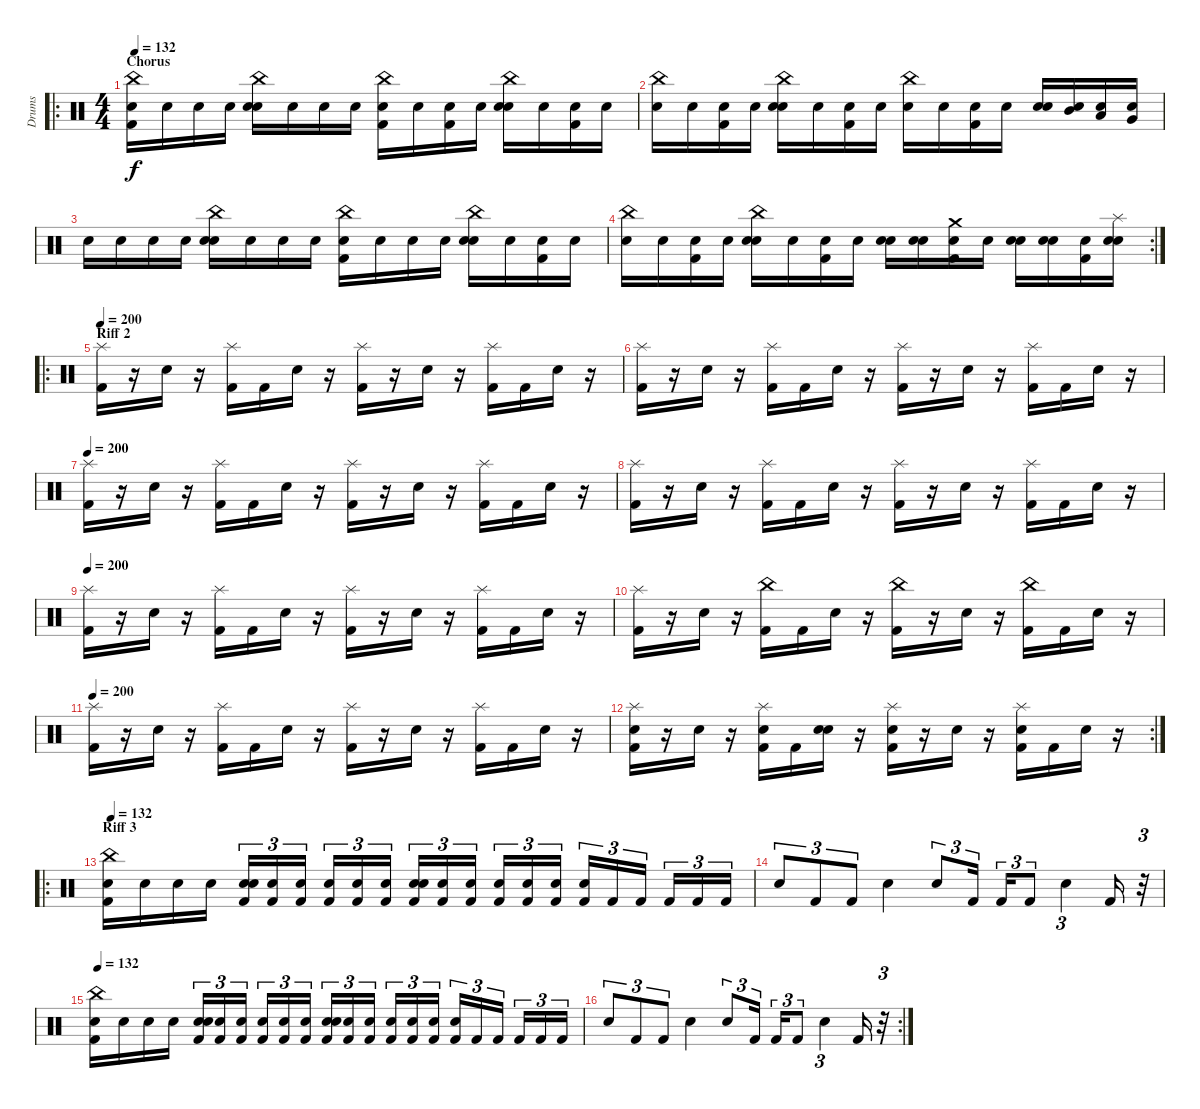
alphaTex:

\track ("Drums" "Drums") {instrument percussion}
\staff {score}
\articulation defaults
\ro
\ts (4 4)
\section ("" "Chorus")
\tempo 132
\clef neutral
\ks c
("Snare (hit)" "Kick (hit) 2" "China (hit)").16{dy f} "Snare (hit)".16 "Snare (hit)".16 "Snare (hit)".16 ("Snare (hit)" "Snare (hit) 2" "China (hit)").16 "Snare (hit)".16 "Snare (hit)".16 "Snare (hit)".16 ("Snare (hit)" "Kick (hit) 2" "China (hit)").16 "Snare (hit)".16 ("Snare (hit)" "Kick (hit) 2").16 "Snare (hit)".16 ("Snare (hit)" "Snare (hit) 2" "China (hit)").16 "Snare (hit)".16 ("Snare (hit)" "Kick (hit) 2").16 "Snare (hit)".16 |
("Snare (hit)" "China (hit)").16 "Snare (hit)".16 ("Snare (hit)" "Kick (hit) 2").16 "Snare (hit)".16 ("Snare (hit)" "Snare (hit) 2" "China (hit)").16 "Snare (hit)".16 ("Snare (hit)" "Kick (hit) 2").16 "Snare (hit)".16 ("Snare (hit)" "China (hit)").16 "Snare (hit)".16 ("Snare (hit)" "Kick (hit) 2").16 "Snare (hit)".16 ("Snare (hit)" "Snare (hit) 2").16 ("Snare (hit)" "Mid Tom (hit)").16 ("Snare (hit)" "Low Tom (hit)").16 ("Snare (hit)" "Very Low Tom (hit)").16 |
"Snare (hit)".16 "Snare (hit)".16 "Snare (hit)".16 "Snare (hit)".16 ("Snare (hit)" "Snare (hit) 2" "China (hit)").16 "Snare (hit)".16 "Snare (hit)".16 "Snare (hit)".16 ("Snare (hit)" "Kick (hit) 2" "China (hit)").16 "Snare (hit)".16 "Snare (hit)".16 "Snare (hit)".16 ("Snare (hit)" "Snare (hit) 2" "China (hit)").16 "Snare (hit)".16 ("Snare (hit)" "Kick (hit) 2").16 "Snare (hit)".16 |
\rc 2
("Snare (hit)" "China (hit)").16 "Snare (hit)".16 ("Snare (hit)" "Kick (hit) 2").16 "Snare (hit)".16 ("Snare (hit)" "Snare (hit) 2" "China (hit)").16 "Snare (hit)".16 ("Snare (hit)" "Kick (hit) 2").16 "Snare (hit)".16 ("Snare (hit)" "Snare (hit) 2").16 ("Snare (hit)" "Snare (hit) 2").16 ("Snare (hit)" "Kick (hit) 2" "Crash medium (hit)").16 "Snare (hit)".16 ("Snare (hit)" "Snare (hit) 2").16 ("Snare (hit)" "Snare (hit) 2").16 ("Snare (hit)" "Kick (hit) 2").16 ("Snare (hit)" "Snare (hit) 2" "Splash (hit)").16 |
\ro
\section ("" "Riff 2")
\tempo 200
("Kick (hit) 2" "Splash (hit)").16 r.16 "Snare (hit) 2".16 r.16 ("Kick (hit) 2" "Splash (hit)").16 "Kick (hit) 2".16 "Snare (hit) 2".16 r.16 ("Kick (hit) 2" "Splash (hit)").16 r.16 "Snare (hit) 2".16 r.16 ("Kick (hit) 2" "Splash (hit)").16 "Kick (hit) 2".16 "Snare (hit) 2".16 r.16 |
("Kick (hit) 2" "Splash (hit)").16 r.16 "Snare (hit) 2".16 r.16 ("Kick (hit) 2" "Splash (hit)").16 "Kick (hit) 2".16 "Snare (hit) 2".16 r.16 ("Kick (hit) 2" "Splash (hit)").16 r.16 "Snare (hit) 2".16 r.16 ("Kick (hit) 2" "Splash (hit)").16 "Kick (hit) 2".16 "Snare (hit) 2".16 r.16 |
\tempo 200
("Kick (hit) 2" "Splash (hit)").16 r.16 "Snare (hit) 2".16 r.16 ("Kick (hit) 2" "Splash (hit)").16 "Kick (hit) 2".16 "Snare (hit) 2".16 r.16 ("Kick (hit) 2" "Splash (hit)").16 r.16 "Snare (hit) 2".16 r.16 ("Kick (hit) 2" "Splash (hit)").16 "Kick (hit) 2".16 "Snare (hit) 2".16 r.16 |
("Kick (hit) 2" "Splash (hit)").16 r.16 "Snare (hit) 2".16 r.16 ("Kick (hit) 2" "Splash (hit)").16 "Kick (hit) 2".16 "Snare (hit) 2".16 r.16 ("Kick (hit) 2" "Splash (hit)").16 r.16 "Snare (hit) 2".16 r.16 ("Kick (hit) 2" "Splash (hit)").16 "Kick (hit) 2".16 "Snare (hit) 2".16 r.16 |
\tempo 200
("Kick (hit) 2" "Splash (hit)").16 r.16 "Snare (hit) 2".16 r.16 ("Kick (hit) 2" "Splash (hit)").16 "Kick (hit) 2".16 "Snare (hit) 2".16 r.16 ("Kick (hit) 2" "Splash (hit)").16 r.16 "Snare (hit) 2".16 r.16 ("Kick (hit) 2" "Splash (hit)").16 "Kick (hit) 2".16 "Snare (hit) 2".16 r.16 |
("Kick (hit) 2" "Splash (hit)").16 r.16 "Snare (hit) 2".16 r.16 ("Kick (hit) 2" "China (hit)").16 "Kick (hit) 2".16 "Snare (hit) 2".16 r.16 ("Kick (hit) 2" "China (hit)").16 r.16 "Snare (hit) 2".16 r.16 ("Kick (hit) 2" "China (hit)").16 "Kick (hit) 2".16 "Snare (hit) 2".16 r.16 |
\tempo 200
("Kick (hit) 2" "Splash (hit)").16 r.16 "Snare (hit) 2".16 r.16 ("Kick (hit) 2" "Splash (hit)").16 "Kick (hit) 2".16 "Snare (hit) 2".16 r.16 ("Kick (hit) 2" "Splash (hit)").16 r.16 "Snare (hit) 2".16 r.16 ("Kick (hit) 2" "Splash (hit)").16 "Kick (hit) 2".16 "Snare (hit) 2".16 r.16 |
\rc 2
("Kick (hit) 2" "Snare (hit) 2" "Splash (hit)").16 r.16 "Snare (hit) 2".16 r.16 ("Kick (hit) 2" "Snare (hit) 2" "Splash (hit)").16 "Kick (hit) 2".16 ("Snare (hit) 2" "Snare (hit) 2").16 r.16 ("Kick (hit) 2" "Snare (hit) 2" "Splash (hit)").16 r.16 "Snare (hit) 2".16 r.16 ("Kick (hit) 2" "Snare (hit) 2" "Splash (hit)").16 "Kick (hit) 2".16 "Snare (hit) 2".16 r.16 |
\ro
\section ("" "Riff 3")
\tempo 132
("Snare (hit)" "Kick (hit) 2" "China (hit)").16 "Snare (hit)".16 "Snare (hit)".16 "Snare (hit)".16 ("Snare (hit)" "Kick (hit) 2" "Snare (hit) 2").16{tu (3 2)} ("Snare (hit)" "Kick (hit) 2").16{tu (3 2)} ("Snare (hit)" "Kick (hit) 2").16{tu (3 2)} ("Snare (hit)" "Kick (hit) 2").16{tu (3 2)} ("Snare (hit)" "Kick (hit) 2").16{tu (3 2)} ("Snare (hit)" "Kick (hit) 2").16{tu (3 2)} ("Snare (hit)" "Kick (hit) 2" "Snare (hit) 2").16{tu (3 2)} ("Snare (hit)" "Kick (hit) 2").16{tu (3 2)} ("Snare (hit)" "Kick (hit) 2").16{tu (3 2)} ("Snare (hit)" "Kick (hit) 2").16{tu (3 2)} ("Snare (hit)" "Kick (hit) 2").16{tu (3 2)} ("Snare (hit)" "Kick (hit) 2").16{tu (3 2)} ("Kick (hit) 2" "Snare (hit) 2").16{tu (3 2)} "Kick (hit) 2".16{tu (3 2)} "Kick (hit) 2".16{tu (3 2)} "Kick (hit) 2".16{tu (3 2)} "Kick (hit) 2".16{tu (3 2)} "Kick (hit) 2".16{tu (3 2)} |
"Snare (hit) 2".8{tu (3 2)} "Kick (hit) 2".8{tu (3 2)} "Kick (hit) 2".8{tu (3 2)} "Snare (hit) 2".4 "Snare (hit) 2".8{tu (3 2)} "Kick (hit) 2".16{tu (3 2)} "Kick (hit) 2".16{tu (3 2)} "Kick (hit) 2".8{tu (3 2)} "Snare (hit) 2".4{tu (3 2)} "Kick (hit) 2".16 r.32{tu (3 2)} |
\tempo 132
("Snare (hit)" "Kick (hit) 2" "China (hit)").16 "Snare (hit)".16 "Snare (hit)".16 "Snare (hit)".16 ("Snare (hit)" "Kick (hit) 2" "Snare (hit) 2").16{tu (3 2)} ("Snare (hit)" "Kick (hit) 2").16{tu (3 2)} ("Snare (hit)" "Kick (hit) 2").16{tu (3 2)} ("Snare (hit)" "Kick (hit) 2").16{tu (3 2)} ("Snare (hit)" "Kick (hit) 2").16{tu (3 2)} ("Snare (hit)" "Kick (hit) 2").16{tu (3 2)} ("Snare (hit)" "Kick (hit) 2" "Snare (hit) 2").16{tu (3 2)} ("Snare (hit)" "Kick (hit) 2").16{tu (3 2)} ("Snare (hit)" "Kick (hit) 2").16{tu (3 2)} ("Snare (hit)" "Kick (hit) 2").16{tu (3 2)} ("Snare (hit)" "Kick (hit) 2").16{tu (3 2)} ("Snare (hit)" "Kick (hit) 2").16{tu (3 2)} ("Kick (hit) 2" "Snare (hit) 2").16{tu (3 2)} "Kick (hit) 2".16{tu (3 2)} "Kick (hit) 2".16{tu (3 2)} "Kick (hit) 2".16{tu (3 2)} "Kick (hit) 2".16{tu (3 2)} "Kick (hit) 2".16{tu (3 2)} |
\rc 2 "Snare (hit) 2".8{tu (3 2)} "Kick (hit) 2".8{tu (3 2)} "Kick (hit) 2".8{tu (3 2)} "Snare (hit) 2".4 "Snare (hit) 2".8{tu (3 2)} "Kick (hit) 2".16{tu (3 2)} "Kick (hit) 2".16{tu (3 2)} "Kick (hit) 2".8{tu (3 2)} "Snare (hit) 2".4{tu (3 2)} "Kick (hit) 2".16
r.32{tu (3 2)}
